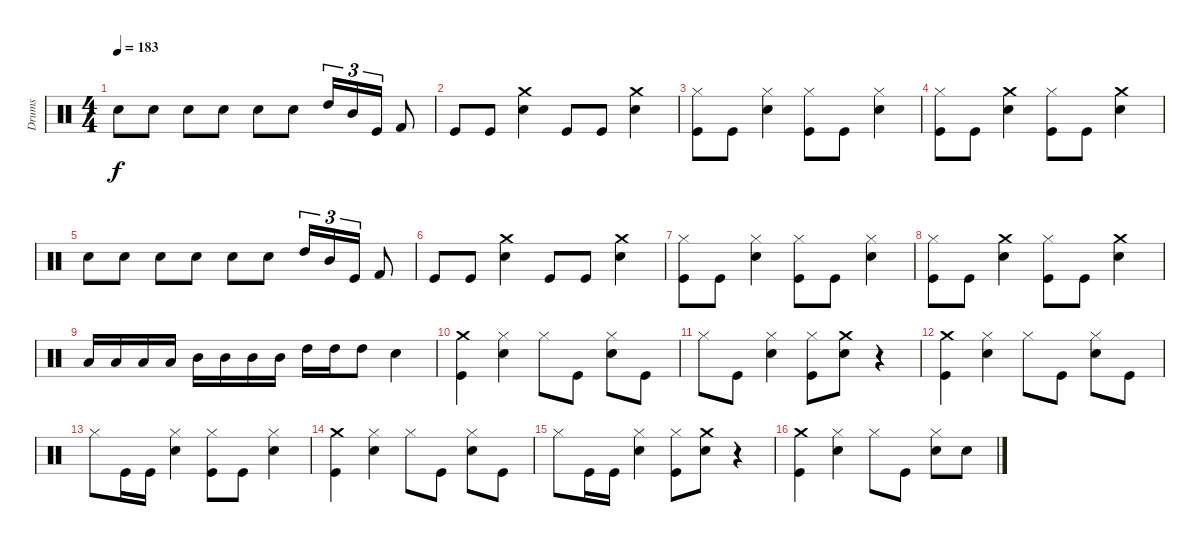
\track ("Drums" "Drums") {instrument percussion}
\staff {score}
\articulation defaults
\ts (4 4)
\tempo 183
\clef neutral
\ks c "Snare (hit) 2".8{dy f} "Snare (hit) 2".8 "Snare (hit) 2".8 "Snare (hit) 2".8 "Snare (hit) 2".8 "Snare (hit) 2".8 "High Tom (hit)".16{tu (3 2)} "Mid Tom (hit)".16{tu (3 2)} "Kick (hit)".16{tu (3 2)} "Kick (hit) 2".8
|
"Kick (hit)".8 "Kick (hit)".8 ("Crash medium (hit)" "Snare (hit) 2").4 "Kick (hit)".8 "Kick (hit)".8 ("Crash medium (hit)" "Snare (hit) 2").4 |
("Kick (hit)" "Hi-Hat (closed)").8 "Kick (hit)".8 ("Snare (hit) 2" "Hi-Hat (closed)").4 ("Kick (hit)" "Hi-Hat (closed)").8 "Kick (hit)".8 ("Snare (hit) 2" "Hi-Hat (closed)").4 |
("Kick (hit)" "Hi-Hat (closed)").8 "Kick (hit)".8 ("Snare (hit) 2" "Crash medium (hit)").4 ("Kick (hit)" "Hi-Hat (closed)").8 "Kick (hit)".8 ("Crash medium (hit)" "Snare (hit) 2").4 |
"Snare (hit) 2".8 "Snare (hit) 2".8 "Snare (hit) 2".8 "Snare (hit) 2".8 "Snare (hit) 2".8 "Snare (hit) 2".8 "High Tom (hit)".16{tu (3 2)} "Mid Tom (hit)".16{tu (3 2)} "Kick (hit)".16{tu (3 2)} "Kick (hit) 2".8 |
"Kick (hit)".8 "Kick (hit)".8 ("Crash medium (hit)" "Snare (hit) 2").4 "Kick (hit)".8 "Kick (hit)".8 ("Crash medium (hit)" "Snare (hit) 2").4 |
("Kick (hit)" "Hi-Hat (closed)").8 "Kick (hit)".8 ("Snare (hit) 2" "Hi-Hat (closed)").4 ("Kick (hit)" "Hi-Hat (closed)").8 "Kick (hit)".8 ("Snare (hit) 2" "Hi-Hat (closed)").4 |
("Kick (hit)" "Hi-Hat (closed)").8 "Kick (hit)".8 ("Snare (hit) 2" "Crash medium (hit)").4 ("Kick (hit)" "Hi-Hat (closed)").8 "Kick (hit)".8 ("Crash medium (hit)" "Snare (hit) 2").4 |
"Low Tom (hit)".16 "Low Tom (hit)".16 "Low Tom (hit)".16 "Low Tom (hit)".16 "Mid Tom (hit)".16 "Mid Tom (hit)".16 "Mid Tom (hit)".16 "Mid Tom (hit)".16 "High Tom (hit)".16 "High Tom (hit)".16 "High Tom (hit)".8 "Snare (hit) 2".4 |
("Kick (hit)" "Crash medium (hit)").4 ("Hi-Hat (closed)" "Snare (hit) 2").4 "Hi-Hat (closed)".8 "Kick (hit)".8 ("Snare (hit) 2" "Hi-Hat (closed)").8 "Kick (hit)".8 |
"Hi-Hat (closed)".8 "Kick (hit)".8 ("Snare (hit) 2" "Hi-Hat (closed)").4 ("Hi-Hat (closed)" "Kick (hit)").8 ("Crash medium (hit)" "Snare (hit) 2").8 r.4 |
("Crash medium (hit)" "Kick (hit)").4 ("Hi-Hat (closed)" "Snare (hit) 2").4 "Hi-Hat (closed)".8 "Kick (hit)".8 ("Snare (hit) 2" "Hi-Hat (closed)").8 "Kick (hit)".8 |
"Hi-Hat (closed)".8 "Kick (hit)".16 "Kick (hit)".16 ("Snare (hit) 2" "Hi-Hat (closed)").4 ("Hi-Hat (closed)" "Kick (hit)").8 "Kick (hit)".8 ("Snare (hit) 2" "Hi-Hat (closed)").4 |
("Kick (hit)" "Crash medium (hit)").4 ("Hi-Hat (closed)" "Snare (hit) 2").4 "Hi-Hat (closed)".8 "Kick (hit)".8 ("Snare (hit) 2" "Hi-Hat (closed)").8 "Kick (hit)".8 |
"Hi-Hat (closed)".8 "Kick (hit)".16 "Kick (hit)".16 ("Snare (hit) 2" "Hi-Hat (closed)").4 ("Hi-Hat (closed)" "Kick (hit)").8 ("Crash medium (hit)" "Snare (hit) 2").8 r.4 |
("Kick (hit)" "Crash medium (hit)").4 ("Hi-Hat (closed)" "Snare (hit) 2").4 "Hi-Hat (closed)".8 "Kick (hit)".8 ("Hi-Hat (closed)" "Snare (hit) 2").8 "Snare (hit) 2".8
